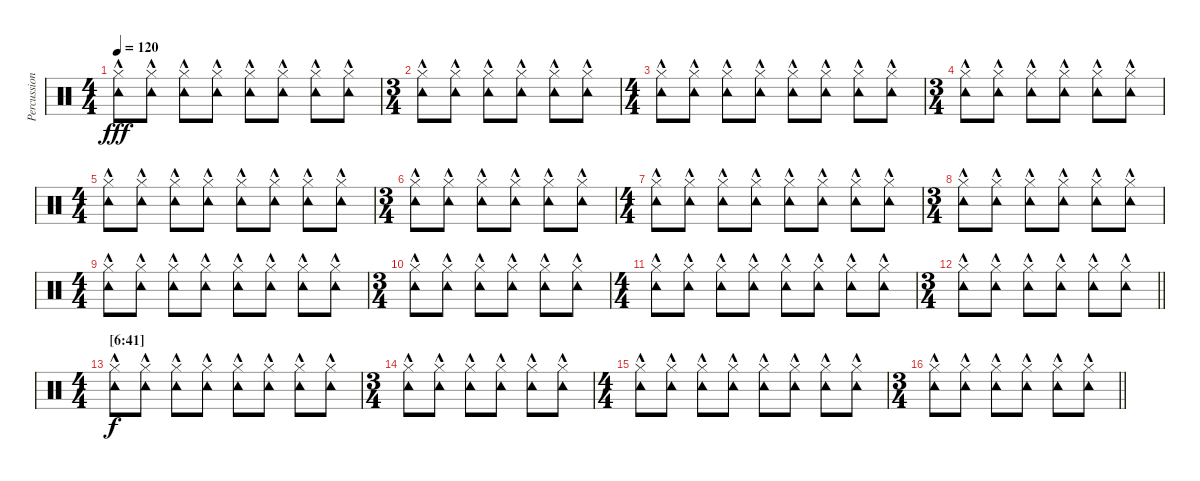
\track ("Percussion" "Percussion") {instrument percussion}
\staff {score}
\articulation defaults
\ts (4 4)
\tempo 120
\clef neutral
\ks c
("Tambourine (hit)"{hac} "Hi-Hat (closed)").8{dy fff} ("Tambourine (hit)"{hac} "Hi-Hat (closed)").8 ("Tambourine (hit)"{hac} "Hi-Hat (closed)").8 ("Tambourine (hit)"{hac} "Hi-Hat (closed)").8 ("Tambourine (hit)"{hac} "Hi-Hat (closed)").8 ("Tambourine (hit)"{hac} "Hi-Hat (closed)").8 ("Tambourine (hit)"{hac} "Hi-Hat (closed)").8 ("Tambourine (hit)"{hac} "Hi-Hat (closed)").8 |
\ts (3 4)
("Tambourine (hit)"{hac} "Hi-Hat (closed)").8 ("Tambourine (hit)"{hac} "Hi-Hat (closed)").8 ("Tambourine (hit)"{hac} "Hi-Hat (closed)").8 ("Tambourine (hit)"{hac} "Hi-Hat (closed)").8 ("Tambourine (hit)"{hac} "Hi-Hat (closed)").8 ("Tambourine (hit)"{hac} "Hi-Hat (closed)").8 |
\ts (4 4)
("Tambourine (hit)"{hac} "Hi-Hat (closed)").8 ("Tambourine (hit)"{hac} "Hi-Hat (closed)").8 ("Tambourine (hit)"{hac} "Hi-Hat (closed)").8 ("Tambourine (hit)"{hac} "Hi-Hat (closed)").8 ("Tambourine (hit)"{hac} "Hi-Hat (closed)").8 ("Tambourine (hit)"{hac} "Hi-Hat (closed)").8 ("Tambourine (hit)"{hac} "Hi-Hat (closed)").8 ("Tambourine (hit)"{hac} "Hi-Hat (closed)").8 |
\ts (3 4)
("Tambourine (hit)"{hac} "Hi-Hat (closed)").8 ("Tambourine (hit)"{hac} "Hi-Hat (closed)").8 ("Tambourine (hit)"{hac} "Hi-Hat (closed)").8 ("Tambourine (hit)"{hac} "Hi-Hat (closed)").8 ("Tambourine (hit)"{hac} "Hi-Hat (closed)").8 ("Tambourine (hit)"{hac} "Hi-Hat (closed)").8 |
\ts (4 4)
("Tambourine (hit)"{hac} "Hi-Hat (closed)").8 ("Tambourine (hit)"{hac} "Hi-Hat (closed)").8 ("Tambourine (hit)"{hac} "Hi-Hat (closed)").8 ("Tambourine (hit)"{hac} "Hi-Hat (closed)").8 ("Tambourine (hit)"{hac} "Hi-Hat (closed)").8 ("Tambourine (hit)"{hac} "Hi-Hat (closed)").8 ("Tambourine (hit)"{hac} "Hi-Hat (closed)").8 ("Tambourine (hit)"{hac} "Hi-Hat (closed)").8 |
\ts (3 4)
("Tambourine (hit)"{hac} "Hi-Hat (closed)").8 ("Tambourine (hit)"{hac} "Hi-Hat (closed)").8 ("Tambourine (hit)"{hac} "Hi-Hat (closed)").8 ("Tambourine (hit)"{hac} "Hi-Hat (closed)").8 ("Tambourine (hit)"{hac} "Hi-Hat (closed)").8 ("Tambourine (hit)"{hac} "Hi-Hat (closed)").8 |
\ts (4 4)
("Tambourine (hit)"{hac} "Hi-Hat (closed)").8 ("Tambourine (hit)"{hac} "Hi-Hat (closed)").8 ("Tambourine (hit)"{hac} "Hi-Hat (closed)").8 ("Tambourine (hit)"{hac} "Hi-Hat (closed)").8 ("Tambourine (hit)"{hac} "Hi-Hat (closed)").8 ("Tambourine (hit)"{hac} "Hi-Hat (closed)").8 ("Tambourine (hit)"{hac} "Hi-Hat (closed)").8 ("Tambourine (hit)"{hac} "Hi-Hat (closed)").8 |
\ts (3 4)
("Tambourine (hit)"{hac} "Hi-Hat (closed)").8 ("Tambourine (hit)"{hac} "Hi-Hat (closed)").8 ("Tambourine (hit)"{hac} "Hi-Hat (closed)").8 ("Tambourine (hit)"{hac} "Hi-Hat (closed)").8 ("Tambourine (hit)"{hac} "Hi-Hat (closed)").8 ("Tambourine (hit)"{hac} "Hi-Hat (closed)").8 |
\ts (4 4)
("Tambourine (hit)"{hac} "Hi-Hat (closed)").8 ("Tambourine (hit)"{hac} "Hi-Hat (closed)").8 ("Tambourine (hit)"{hac} "Hi-Hat (closed)").8 ("Tambourine (hit)"{hac} "Hi-Hat (closed)").8 ("Tambourine (hit)"{hac} "Hi-Hat (closed)").8 ("Tambourine (hit)"{hac} "Hi-Hat (closed)").8 ("Tambourine (hit)"{hac} "Hi-Hat (closed)").8 ("Tambourine (hit)"{hac} "Hi-Hat (closed)").8 |
\ts (3 4)
("Tambourine (hit)"{hac} "Hi-Hat (closed)").8 ("Tambourine (hit)"{hac} "Hi-Hat (closed)").8 ("Tambourine (hit)"{hac} "Hi-Hat (closed)").8 ("Tambourine (hit)"{hac} "Hi-Hat (closed)").8 ("Tambourine (hit)"{hac} "Hi-Hat (closed)").8 ("Tambourine (hit)"{hac} "Hi-Hat (closed)").8 |
\ts (4 4)
("Tambourine (hit)"{hac} "Hi-Hat (closed)").8 ("Tambourine (hit)"{hac} "Hi-Hat (closed)").8 ("Tambourine (hit)"{hac} "Hi-Hat (closed)").8 ("Tambourine (hit)"{hac} "Hi-Hat (closed)").8 ("Tambourine (hit)"{hac} "Hi-Hat (closed)").8 ("Tambourine (hit)"{hac} "Hi-Hat (closed)").8 ("Tambourine (hit)"{hac} "Hi-Hat (closed)").8 ("Tambourine (hit)"{hac} "Hi-Hat (closed)").8 |
\ts (3 4)
\barLineRight lightlight
("Tambourine (hit)"{hac} "Hi-Hat (closed)").8 ("Tambourine (hit)"{hac} "Hi-Hat (closed)").8 ("Tambourine (hit)"{hac} "Hi-Hat (closed)").8 ("Tambourine (hit)"{hac} "Hi-Hat (closed)").8 ("Tambourine (hit)"{hac} "Hi-Hat (closed)").8 ("Tambourine (hit)"{hac} "Hi-Hat (closed)").8 |
\ts (4 4)
\section ("" "[6:41]")
("Tambourine (hit)"{hac} "Hi-Hat (closed)").8{dy f} ("Tambourine (hit)"{hac} "Hi-Hat (closed)").8 ("Tambourine (hit)"{hac} "Hi-Hat (closed)").8 ("Tambourine (hit)"{hac} "Hi-Hat (closed)").8 ("Tambourine (hit)"{hac} "Hi-Hat (closed)").8 ("Tambourine (hit)"{hac} "Hi-Hat (closed)").8 ("Tambourine (hit)"{hac} "Hi-Hat (closed)").8 ("Tambourine (hit)"{hac} "Hi-Hat (closed)").8 |
\ts (3 4)
("Tambourine (hit)"{hac} "Hi-Hat (closed)").8 ("Tambourine (hit)"{hac} "Hi-Hat (closed)").8 ("Tambourine (hit)"{hac} "Hi-Hat (closed)").8 ("Tambourine (hit)"{hac} "Hi-Hat (closed)").8 ("Tambourine (hit)"{hac} "Hi-Hat (closed)").8 ("Tambourine (hit)"{hac} "Hi-Hat (closed)").8 |
\ts (4 4)
("Tambourine (hit)"{hac} "Hi-Hat (closed)").8 ("Tambourine (hit)"{hac} "Hi-Hat (closed)").8 ("Tambourine (hit)"{hac} "Hi-Hat (closed)").8 ("Tambourine (hit)"{hac} "Hi-Hat (closed)").8 ("Tambourine (hit)"{hac} "Hi-Hat (closed)").8 ("Tambourine (hit)"{hac} "Hi-Hat (closed)").8 ("Tambourine (hit)"{hac} "Hi-Hat (closed)").8 ("Tambourine (hit)"{hac} "Hi-Hat (closed)").8 |
\ts (3 4)
\barLineRight lightlight
("Tambourine (hit)"{hac} "Hi-Hat (closed)").8 ("Tambourine (hit)"{hac} "Hi-Hat (closed)").8 ("Tambourine (hit)"{hac} "Hi-Hat (closed)").8 ("Tambourine (hit)"{hac} "Hi-Hat (closed)").8 ("Tambourine (hit)"{hac} "Hi-Hat (closed)").8 ("Tambourine (hit)"{hac} "Hi-Hat (closed)").8
